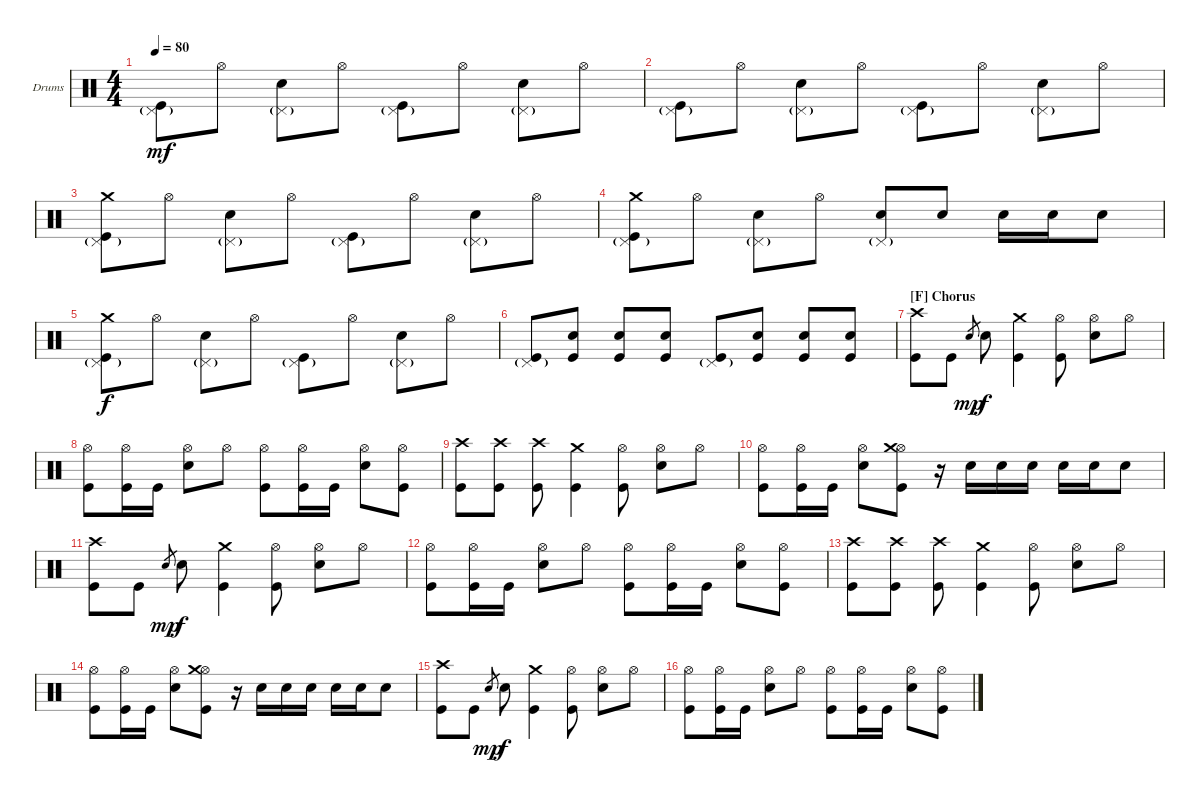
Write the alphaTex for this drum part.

\defaultSystemsLayout 4
\bracketExtendMode groupsimilarinstruments
\firstSystemTrackNameOrientation horizontal
\otherSystemsTrackNameOrientation horizontal
\track ("Drumkit" "Drums") {instrument percussion}
\staff {score}
\articulation defaults
\ts (4 4)
\tempo 80
\clef neutral
\scale
1.02648
\ks c
("Pedal Hi-Hat (hit)"{g} "Kick (hit)").8{dy mf} "Hi-Hat (open)".8 ("Pedal Hi-Hat (hit)"{g} "Snare (hit) 2").8 "Hi-Hat (open)".8 ("Pedal Hi-Hat (hit)"{g} "Kick (hit)").8 "Hi-Hat (open)".8 ("Pedal Hi-Hat (hit)"{g} "Snare (hit) 2").8 "Hi-Hat (open)".8 |
\scale
0.973518 ("Pedal Hi-Hat (hit)"{g} "Kick (hit)").8 "Hi-Hat (open)".8 ("Pedal Hi-Hat (hit)"{g} "Snare (hit) 2").8 "Hi-Hat (open)".8 ("Pedal Hi-Hat (hit)"{g} "Kick (hit)").8 "Hi-Hat (open)".8 ("Pedal Hi-Hat (hit)"{g} "Snare (hit) 2").8 "Hi-Hat (open)".8 |
\scale
1.02648 ("Pedal Hi-Hat (hit)"{g} "Crash medium (hit)" "Kick (hit)").8 "Hi-Hat (open)".8 ("Pedal Hi-Hat (hit)"{g} "Snare (hit) 2").8 "Hi-Hat (open)".8 ("Pedal Hi-Hat (hit)"{g} "Kick (hit)").8 "Hi-Hat (open)".8 ("Pedal Hi-Hat (hit)"{g} "Snare (hit) 2").8 "Hi-Hat (open)".8 |
\scale
0.973518 ("Pedal Hi-Hat (hit)"{g} "Crash medium (hit)" "Kick (hit)").8 "Hi-Hat (open)".8 ("Pedal Hi-Hat (hit)"{g} "Snare (hit) 2").8 "Hi-Hat (open)".8 ("Pedal Hi-Hat (hit)"{g} "Snare (hit) 2").8 "Snare (hit) 2".8 "Snare (hit) 2".16 "Snare (hit) 2".16 "Snare (hit) 2".8 |
\scale
1.02648 ("Pedal Hi-Hat (hit)"{g} "Crash medium (hit)" "Kick (hit)").8{dy f} "Hi-Hat (open)".8 ("Pedal Hi-Hat (hit)"{g} "Snare (hit) 2").8 "Hi-Hat (open)".8 ("Pedal Hi-Hat (hit)"{g} "Kick (hit)").8 "Hi-Hat (open)".8 ("Pedal Hi-Hat (hit)"{g} "Snare (hit) 2").8 "Hi-Hat (open)".8 |
\scale
0.973518 ("Pedal Hi-Hat (hit)"{g} "Kick (hit)").8 ("Snare (hit) 2" "Kick (hit)").8 ("Snare (hit) 2" "Kick (hit)").8 ("Snare (hit) 2" "Kick (hit)").8 ("Pedal Hi-Hat (hit)"{g} "Kick (hit)").8 ("Snare (hit) 2" "Kick (hit)").8 ("Snare (hit) 2" "Kick (hit)").8 ("Snare (hit) 2" "Kick (hit)").8 |
\section ("F" "Chorus")
\scale
1.02648 ("Crash high (hit)" "Kick (hit)").8 "Kick (hit)".8 "Snare (hit) 2".8{gr dy mp} "Snare (hit) 2".8{dy f} ("Crash medium (hit)" "Kick (hit)").4 ("Hi-Hat (open)" "Kick (hit)").8 ("Hi-Hat (open)" "Snare (hit) 2").8 "Hi-Hat (open)".8 |
\scale
0.973518 ("Hi-Hat (open)" "Kick (hit)").8 ("Hi-Hat (open)" "Kick (hit)").16 "Kick (hit)".16 ("Hi-Hat (open)" "Snare (hit) 2").8 "Hi-Hat (open)".8 ("Hi-Hat (open)" "Kick (hit)").8 ("Hi-Hat (open)" "Kick (hit)").16 "Kick (hit)".16 ("Hi-Hat (open)" "Snare (hit) 2").8 ("Hi-Hat (open)" "Kick (hit)").8 |
\scale
1.02648 ("Crash high (hit)" "Kick (hit)").8 ("Crash high (hit)" "Kick (hit)").8 ("Crash high (hit)" "Kick (hit)").8 ("Crash medium (hit)" "Kick (hit)").4 ("Hi-Hat (open)" "Kick (hit)").8 ("Hi-Hat (open)" "Snare (hit) 2").8 "Hi-Hat (open)".8 |
\scale
0.973518 ("Hi-Hat (open)" "Kick (hit)").8 ("Hi-Hat (open)" "Kick (hit)").16 "Kick (hit)".16 ("Hi-Hat (open)" "Snare (hit) 2").8 ("Hi-Hat (open)" "Crash medium (hit)" "Kick (hit)").8 r.16 "Snare (hit) 2".16 "Snare (hit) 2".16 "Snare (hit) 2".16 "Snare (hit) 2".16 "Snare (hit) 2".16 "Snare (hit) 2".8 |
\scale
1.02648 ("Crash high (hit)" "Kick (hit)").8 "Kick (hit)".8 "Snare (hit) 2".8{gr dy mp} "Snare (hit) 2".8{dy f} ("Crash medium (hit)" "Kick (hit)").4 ("Hi-Hat (open)" "Kick (hit)").8 ("Hi-Hat (open)" "Snare (hit) 2").8 "Hi-Hat (open)".8 |
\scale
0.973518 ("Hi-Hat (open)" "Kick (hit)").8 ("Hi-Hat (open)" "Kick (hit)").16 "Kick (hit)".16 ("Hi-Hat (open)" "Snare (hit) 2").8 "Hi-Hat (open)".8 ("Hi-Hat (open)" "Kick (hit)").8 ("Hi-Hat (open)" "Kick (hit)").16 "Kick (hit)".16 ("Hi-Hat (open)" "Snare (hit) 2").8 ("Hi-Hat (open)" "Kick (hit)").8 |
\scale
1.02648 ("Crash high (hit)" "Kick (hit)").8 ("Crash high (hit)" "Kick (hit)").8 ("Crash high (hit)" "Kick (hit)").8 ("Crash medium (hit)" "Kick (hit)").4 ("Hi-Hat (open)" "Kick (hit)").8 ("Hi-Hat (open)" "Snare (hit) 2").8 "Hi-Hat (open)".8 |
\scale
0.973518 ("Hi-Hat (open)" "Kick (hit)").8 ("Hi-Hat (open)" "Kick (hit)").16 "Kick (hit)".16 ("Hi-Hat (open)" "Snare (hit) 2").8 ("Hi-Hat (open)" "Crash medium (hit)" "Kick (hit)").8 r.16 "Snare (hit) 2".16 "Snare (hit) 2".16 "Snare (hit) 2".16 "Snare (hit) 2".16 "Snare (hit) 2".16 "Snare (hit) 2".8 |
\scale
1.02648 ("Crash high (hit)" "Kick (hit)").8 "Kick (hit)".8 "Snare (hit) 2".8{gr dy mp} "Snare (hit) 2".8{dy f} ("Crash medium (hit)" "Kick (hit)").4 ("Hi-Hat (open)" "Kick (hit)").8 ("Hi-Hat (open)" "Snare (hit) 2").8 "Hi-Hat (open)".8 |
\scale
0.973518 ("Hi-Hat (open)" "Kick (hit)").8 ("Hi-Hat (open)" "Kick (hit)").16 "Kick (hit)".16 ("Hi-Hat (open)" "Snare (hit) 2").8 "Hi-Hat (open)".8 ("Hi-Hat (open)" "Kick (hit)").8 ("Hi-Hat (open)" "Kick (hit)").16 "Kick (hit)".16 ("Hi-Hat (open)" "Snare (hit) 2").8 ("Hi-Hat (open)" "Kick (hit)").8
